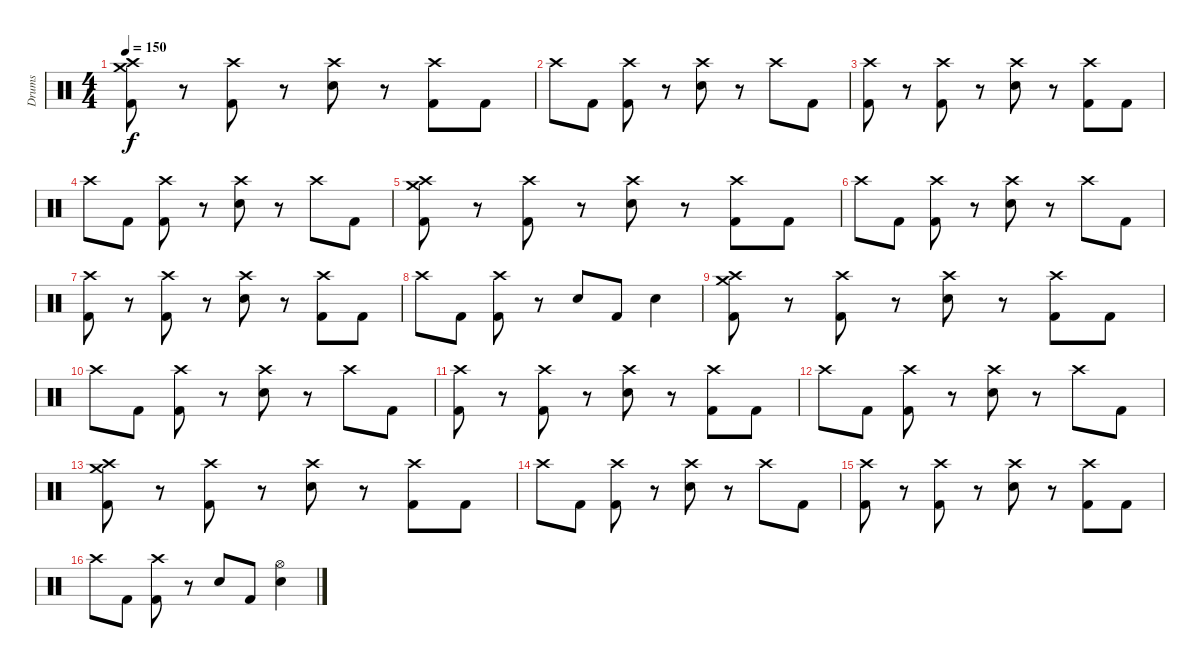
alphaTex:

\track ("Drums" "Drums") {instrument percussion}
\staff {score}
\articulation defaults
\ts (4 4)
\tempo 150
\clef neutral
\ks c
("Crash medium (hit)" "Crash high (hit)" "Kick (hit) 2").8{dy f} r.8 ("Crash high (hit)" "Kick (hit) 2").8 r.8 ("Crash high (hit)" "Electric Snare (hit)").8 r.8 ("Crash high (hit)" "Kick (hit) 2").8 "Kick (hit) 2".8 |
"Crash high (hit)".8 "Kick (hit) 2".8 ("Crash high (hit)" "Kick (hit) 2").8 r.8 ("Crash high (hit)" "Electric Snare (hit)").8 r.8 "Crash high (hit)".8 "Kick (hit) 2".8 |
("Crash high (hit)" "Kick (hit) 2").8 r.8 ("Crash high (hit)" "Kick (hit) 2").8 r.8 ("Crash high (hit)" "Electric Snare (hit)").8 r.8 ("Crash high (hit)" "Kick (hit) 2").8 "Kick (hit) 2".8 |
"Crash high (hit)".8 "Kick (hit) 2".8 ("Crash high (hit)" "Kick (hit) 2").8 r.8 ("Crash high (hit)" "Electric Snare (hit)").8 r.8 "Crash high (hit)".8 "Kick (hit) 2".8 |
("Crash medium (hit)" "Crash high (hit)" "Kick (hit) 2").8 r.8 ("Crash high (hit)" "Kick (hit) 2").8 r.8 ("Crash high (hit)" "Electric Snare (hit)").8 r.8 ("Crash high (hit)" "Kick (hit) 2").8 "Kick (hit) 2".8 |
"Crash high (hit)".8 "Kick (hit) 2".8 ("Crash high (hit)" "Kick (hit) 2").8 r.8 ("Crash high (hit)" "Electric Snare (hit)").8 r.8 "Crash high (hit)".8 "Kick (hit) 2".8 |
("Crash high (hit)" "Kick (hit) 2").8 r.8 ("Crash high (hit)" "Kick (hit) 2").8 r.8 ("Crash high (hit)" "Electric Snare (hit)").8 r.8 ("Crash high (hit)" "Kick (hit) 2").8 "Kick (hit) 2".8 |
"Crash high (hit)".8 "Kick (hit) 2".8 ("Crash high (hit)" "Kick (hit) 2").8 r.8 "Electric Snare (hit)".8 "Kick (hit) 2".8 "Electric Snare (hit)".4 |
("Crash medium (hit)" "Crash high (hit)" "Kick (hit) 2").8 r.8 ("Crash high (hit)" "Kick (hit) 2").8 r.8 ("Crash high (hit)" "Electric Snare (hit)").8 r.8 ("Crash high (hit)" "Kick (hit) 2").8 "Kick (hit) 2".8 |
"Crash high (hit)".8 "Kick (hit) 2".8 ("Crash high (hit)" "Kick (hit) 2").8 r.8 ("Crash high (hit)" "Electric Snare (hit)").8 r.8 "Crash high (hit)".8 "Kick (hit) 2".8 |
("Crash high (hit)" "Kick (hit) 2").8 r.8 ("Crash high (hit)" "Kick (hit) 2").8 r.8 ("Crash high (hit)" "Electric Snare (hit)").8 r.8 ("Crash high (hit)" "Kick (hit) 2").8 "Kick (hit) 2".8 |
"Crash high (hit)".8 "Kick (hit) 2".8 ("Crash high (hit)" "Kick (hit) 2").8 r.8 ("Crash high (hit)" "Electric Snare (hit)").8 r.8 "Crash high (hit)".8 "Kick (hit) 2".8 |
("Crash medium (hit)" "Crash high (hit)" "Kick (hit) 2").8 r.8 ("Crash high (hit)" "Kick (hit) 2").8 r.8 ("Crash high (hit)" "Electric Snare (hit)").8 r.8 ("Crash high (hit)" "Kick (hit) 2").8 "Kick (hit) 2".8 |
"Crash high (hit)".8 "Kick (hit) 2".8 ("Crash high (hit)" "Kick (hit) 2").8 r.8 ("Crash high (hit)" "Electric Snare (hit)").8 r.8 "Crash high (hit)".8 "Kick (hit) 2".8 |
("Crash high (hit)" "Kick (hit) 2").8 r.8 ("Crash high (hit)" "Kick (hit) 2").8 r.8 ("Crash high (hit)" "Electric Snare (hit)").8 r.8 ("Crash high (hit)" "Kick (hit) 2").8 "Kick (hit) 2".8 |
"Crash high (hit)".8 "Kick (hit) 2".8 ("Crash high (hit)" "Kick (hit) 2").8 r.8 "Electric Snare (hit)".8 "Kick (hit) 2".8 ("Hi-Hat (open)" "Electric Snare (hit)").4
